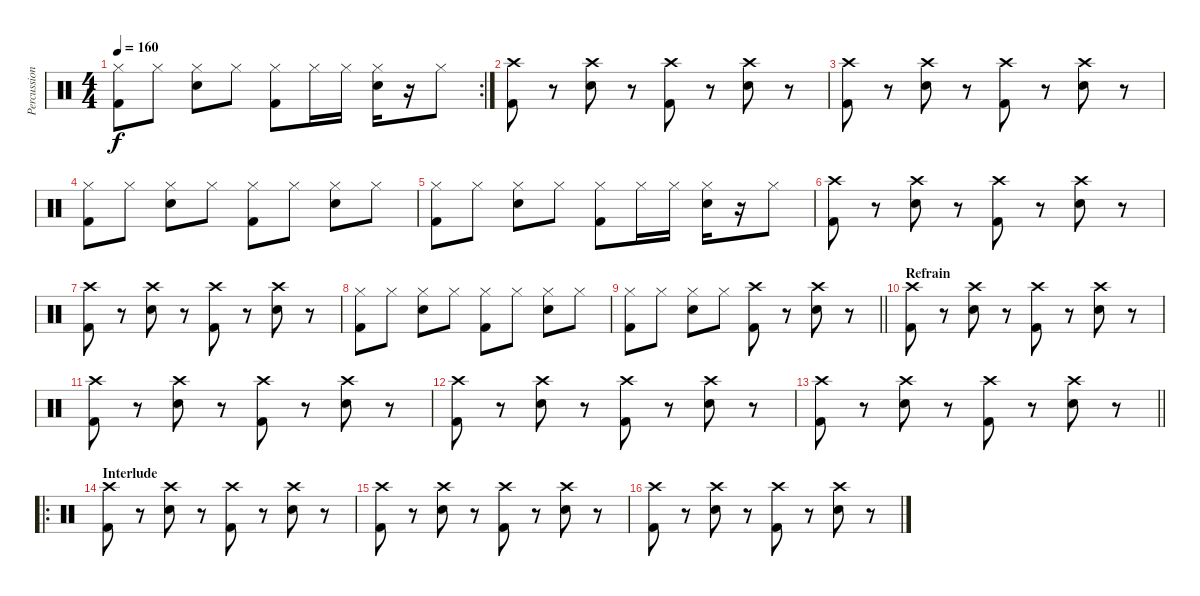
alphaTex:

\track ("Percussions" "Percussion") {instrument percussion}
\staff {score}
\articulation defaults
\rc 2
\ts (4 4)
\tempo 160
\clef neutral
\ks c
("Hi-Hat (closed)" "Kick (hit) 2").8{dy f} "Hi-Hat (closed)".8 ("Hi-Hat (closed)" "Electric Snare (hit)").8 "Hi-Hat (closed)".8 ("Hi-Hat (closed)" "Kick (hit) 2").8 "Hi-Hat (closed)".16 "Hi-Hat (closed)".16 ("Hi-Hat (closed)" "Electric Snare (hit)").16 r.16 "Hi-Hat (closed)".8 |
("Crash high (hit)" "Kick (hit) 2").8 r.8 ("Crash high (hit)" "Electric Snare (hit)").8 r.8 ("Crash high (hit)" "Kick (hit) 2").8 r.8 ("Crash high (hit)" "Electric Snare (hit)").8 r.8 |
("Crash high (hit)" "Kick (hit) 2").8 r.8 ("Crash high (hit)" "Electric Snare (hit)").8 r.8 ("Crash high (hit)" "Kick (hit) 2").8 r.8 ("Crash high (hit)" "Electric Snare (hit)").8 r.8 |
("Hi-Hat (closed)" "Kick (hit) 2").8 "Hi-Hat (closed)".8 ("Hi-Hat (closed)" "Electric Snare (hit)").8 "Hi-Hat (closed)".8 ("Hi-Hat (closed)" "Kick (hit) 2").8 "Hi-Hat (closed)".8 ("Hi-Hat (closed)" "Electric Snare (hit)").8 "Hi-Hat (closed)".8 |
("Hi-Hat (closed)" "Kick (hit) 2").8 "Hi-Hat (closed)".8 ("Hi-Hat (closed)" "Electric Snare (hit)").8 "Hi-Hat (closed)".8 ("Hi-Hat (closed)" "Kick (hit) 2").8 "Hi-Hat (closed)".16 "Hi-Hat (closed)".16 ("Hi-Hat (closed)" "Electric Snare (hit)").16 r.16 "Hi-Hat (closed)".8 |
("Crash high (hit)" "Kick (hit) 2").8 r.8 ("Crash high (hit)" "Electric Snare (hit)").8 r.8 ("Crash high (hit)" "Kick (hit) 2").8 r.8 ("Crash high (hit)" "Electric Snare (hit)").8 r.8 |
("Crash high (hit)" "Kick (hit) 2").8 r.8 ("Crash high (hit)" "Electric Snare (hit)").8 r.8 ("Crash high (hit)" "Kick (hit) 2").8 r.8 ("Crash high (hit)" "Electric Snare (hit)").8 r.8 |
("Hi-Hat (closed)" "Kick (hit) 2").8 "Hi-Hat (closed)".8 ("Hi-Hat (closed)" "Electric Snare (hit)").8 "Hi-Hat (closed)".8 ("Hi-Hat (closed)" "Kick (hit) 2").8 "Hi-Hat (closed)".8 ("Hi-Hat (closed)" "Electric Snare (hit)").8 "Hi-Hat (closed)".8 |
\barLineRight lightlight
("Hi-Hat (closed)" "Kick (hit) 2").8 "Hi-Hat (closed)".8 ("Hi-Hat (closed)" "Electric Snare (hit)").8 "Hi-Hat (closed)".8 ("Crash high (hit)" "Kick (hit) 2").8 r.8 ("Crash high (hit)" "Electric Snare (hit)").8 r.8 |
\section ("" "Refrain")
("Crash high (hit)" "Kick (hit) 2").8 r.8 ("Crash high (hit)" "Electric Snare (hit)").8 r.8 ("Crash high (hit)" "Kick (hit) 2").8 r.8 ("Crash high (hit)" "Electric Snare (hit)").8 r.8 |
("Crash high (hit)" "Kick (hit) 2").8 r.8 ("Crash high (hit)" "Electric Snare (hit)").8 r.8 ("Crash high (hit)" "Kick (hit) 2").8 r.8 ("Crash high (hit)" "Electric Snare (hit)").8 r.8 |
("Crash high (hit)" "Kick (hit) 2").8 r.8 ("Crash high (hit)" "Electric Snare (hit)").8 r.8 ("Crash high (hit)" "Kick (hit) 2").8 r.8 ("Crash high (hit)" "Electric Snare (hit)").8 r.8 |
\barLineRight lightlight
("Crash high (hit)" "Kick (hit) 2").8 r.8 ("Crash high (hit)" "Electric Snare (hit)").8 r.8 ("Crash high (hit)" "Kick (hit) 2").8 r.8 ("Crash high (hit)" "Electric Snare (hit)").8 r.8 |
\ro
\section ("" "Interlude")
("Crash high (hit)" "Kick (hit) 2").8 r.8 ("Crash high (hit)" "Electric Snare (hit)").8 r.8 ("Crash high (hit)" "Kick (hit) 2").8 r.8 ("Crash high (hit)" "Electric Snare (hit)").8 r.8 |
("Crash high (hit)" "Kick (hit) 2").8 r.8 ("Crash high (hit)" "Electric Snare (hit)").8 r.8 ("Crash high (hit)" "Kick (hit) 2").8 r.8 ("Crash high (hit)" "Electric Snare (hit)").8 r.8 |
("Crash high (hit)" "Kick (hit) 2").8 r.8 ("Crash high (hit)" "Electric Snare (hit)").8 r.8 ("Crash high (hit)" "Kick (hit) 2").8 r.8 ("Crash high (hit)" "Electric Snare (hit)").8 r.8
